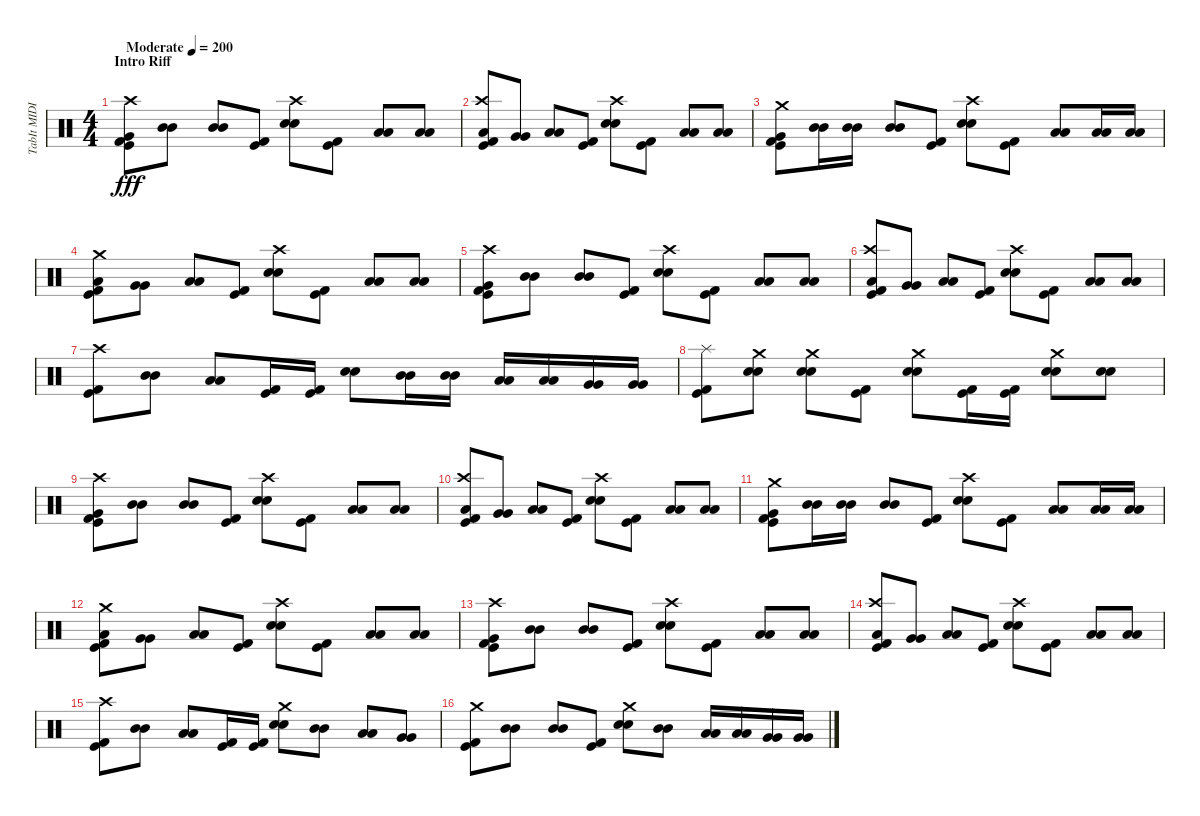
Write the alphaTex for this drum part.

\track ("TabIt MIDI - Track 4" "TabIt MIDI") {instrument percussion}
\staff {score}
\articulation defaults
\ts (4 4)
\section ("" "Intro Riff")
\tempo (200 "Moderate")
\clef neutral
\ks c
("Kick (hit)" "Kick (hit) 2" "Very Low Tom (hit)" "Crash high (hit)").8{dy fff} ("Mid Tom (hit)" "Mid Tom (hit)").8 ("Mid Tom (hit)" "Mid Tom (hit)").8 ("Kick (hit)" "Kick (hit) 2").8 ("Electric Snare (hit)" "Electric Snare (hit)" "Crash high (hit)").8 ("Kick (hit)" "Kick (hit) 2").8 ("Low Tom (hit)" "Low Tom (hit)").8 ("Low Tom (hit)" "Low Tom (hit)").8 |
("Kick (hit)" "Kick (hit) 2" "Low Floor Tom (hit)" "Crash high (hit)").8 ("Very Low Tom (hit)" "Very Low Tom (hit)").8 ("Low Floor Tom (hit)" "Low Floor Tom (hit)").8 ("Kick (hit)" "Kick (hit) 2").8 ("Electric Snare (hit)" "Electric Snare (hit)" "Crash high (hit)").8 ("Kick (hit)" "Kick (hit) 2").8 ("Low Tom (hit)" "Low Tom (hit)").8 ("Low Tom (hit)" "Low Tom (hit)").8 |
("Kick (hit)" "Kick (hit) 2" "Very Low Tom (hit)" "Crash medium (hit)").8 ("Mid Tom (hit)" "Mid Tom (hit)").16 ("Mid Tom (hit)" "Mid Tom (hit)").16 ("Mid Tom (hit)" "Mid Tom (hit)").8 ("Kick (hit)" "Kick (hit) 2").8 ("Electric Snare (hit)" "Electric Snare (hit)" "Crash high (hit)").8 ("Kick (hit)" "Kick (hit) 2").8 ("Low Tom (hit)" "Low Tom (hit)").8 ("Low Tom (hit)" "Low Tom (hit)").16 ("Low Tom (hit)" "Low Tom (hit)").16 |
("Kick (hit)" "Kick (hit) 2" "Low Floor Tom (hit)" "Crash medium (hit)").8 ("Very Low Tom (hit)" "Very Low Tom (hit)").8 ("Low Floor Tom (hit)" "Low Floor Tom (hit)").8 ("Kick (hit)" "Kick (hit) 2").8 ("Electric Snare (hit)" "Electric Snare (hit)" "Crash high (hit)").8 ("Kick (hit)" "Kick (hit) 2").8 ("Low Tom (hit)" "Low Tom (hit)").8 ("Low Tom (hit)" "Low Tom (hit)").8 |
("Kick (hit)" "Kick (hit) 2" "Very Low Tom (hit)" "Crash high (hit)").8 ("Mid Tom (hit)" "Mid Tom (hit)").8 ("Mid Tom (hit)" "Mid Tom (hit)").8 ("Kick (hit)" "Kick (hit) 2").8 ("Electric Snare (hit)" "Electric Snare (hit)" "Crash high (hit)").8 ("Kick (hit)" "Kick (hit) 2").8 ("Low Tom (hit)" "Low Tom (hit)").8 ("Low Tom (hit)" "Low Tom (hit)").8 |
("Kick (hit)" "Kick (hit) 2" "Low Floor Tom (hit)" "Crash high (hit)").8 ("Very Low Tom (hit)" "Very Low Tom (hit)").8 ("Low Floor Tom (hit)" "Low Floor Tom (hit)").8 ("Kick (hit)" "Kick (hit) 2").8 ("Electric Snare (hit)" "Electric Snare (hit)" "Crash high (hit)").8 ("Kick (hit)" "Kick (hit) 2").8 ("Low Tom (hit)" "Low Tom (hit)").8 ("Low Tom (hit)" "Low Tom (hit)").8 |
("Kick (hit)" "Kick (hit) 2" "Crash high (hit)").8 ("Mid Tom (hit)" "Mid Tom (hit)").8 ("Low Tom (hit)" "Low Tom (hit)").8 ("Kick (hit)" "Kick (hit) 2").16 ("Kick (hit)" "Kick (hit) 2").16 ("Electric Snare (hit)" "Electric Snare (hit)").8 ("Mid Tom (hit)" "Mid Tom (hit)").16 ("Mid Tom (hit)" "Mid Tom (hit)").16 ("Low Tom (hit)" "Low Tom (hit)").16 ("Low Tom (hit)" "Low Tom (hit)").16 ("Very Low Tom (hit)" "Very Low Tom (hit)").16 ("Very Low Tom (hit)" "Very Low Tom (hit)").16 |
("Kick (hit)" "Kick (hit) 2" "Splash (hit)").8 ("Electric Snare (hit)" "Electric Snare (hit)" "Crash medium (hit)").8 ("Electric Snare (hit)" "Electric Snare (hit)" "Crash medium (hit)").8 ("Kick (hit)" "Kick (hit) 2").8 ("Electric Snare (hit)" "Electric Snare (hit)" "Crash medium (hit)").8 ("Kick (hit)" "Kick (hit) 2").16 ("Kick (hit)" "Kick (hit) 2").16 ("Electric Snare (hit)" "Electric Snare (hit)" "Crash medium (hit)").8 ("Electric Snare (hit)" "Electric Snare (hit)").8 |
("Kick (hit)" "Kick (hit) 2" "Very Low Tom (hit)" "Crash high (hit)").8 ("Mid Tom (hit)" "Mid Tom (hit)").8 ("Mid Tom (hit)" "Mid Tom (hit)").8 ("Kick (hit)" "Kick (hit) 2").8 ("Electric Snare (hit)" "Electric Snare (hit)" "Crash high (hit)").8 ("Kick (hit)" "Kick (hit) 2").8 ("Low Tom (hit)" "Low Tom (hit)").8 ("Low Tom (hit)" "Low Tom (hit)").8 |
("Kick (hit)" "Kick (hit) 2" "Low Floor Tom (hit)" "Crash high (hit)").8 ("Very Low Tom (hit)" "Very Low Tom (hit)").8 ("Low Floor Tom (hit)" "Low Floor Tom (hit)").8 ("Kick (hit)" "Kick (hit) 2").8 ("Electric Snare (hit)" "Electric Snare (hit)" "Crash high (hit)").8 ("Kick (hit)" "Kick (hit) 2").8 ("Low Tom (hit)" "Low Tom (hit)").8 ("Low Tom (hit)" "Low Tom (hit)").8 |
("Kick (hit)" "Kick (hit) 2" "Very Low Tom (hit)" "Crash medium (hit)").8 ("Mid Tom (hit)" "Mid Tom (hit)").16 ("Mid Tom (hit)" "Mid Tom (hit)").16 ("Mid Tom (hit)" "Mid Tom (hit)").8 ("Kick (hit)" "Kick (hit) 2").8 ("Electric Snare (hit)" "Electric Snare (hit)" "Crash high (hit)").8 ("Kick (hit)" "Kick (hit) 2").8 ("Low Tom (hit)" "Low Tom (hit)").8 ("Low Tom (hit)" "Low Tom (hit)").16 ("Low Tom (hit)" "Low Tom (hit)").16 |
("Kick (hit)" "Kick (hit) 2" "Low Floor Tom (hit)" "Crash medium (hit)").8 ("Very Low Tom (hit)" "Very Low Tom (hit)").8 ("Low Floor Tom (hit)" "Low Floor Tom (hit)").8 ("Kick (hit)" "Kick (hit) 2").8 ("Electric Snare (hit)" "Electric Snare (hit)" "Crash high (hit)").8 ("Kick (hit)" "Kick (hit) 2").8 ("Low Tom (hit)" "Low Tom (hit)").8 ("Low Tom (hit)" "Low Tom (hit)").8 |
("Kick (hit)" "Kick (hit) 2" "Very Low Tom (hit)" "Crash high (hit)").8 ("Mid Tom (hit)" "Mid Tom (hit)").8 ("Mid Tom (hit)" "Mid Tom (hit)").8 ("Kick (hit)" "Kick (hit) 2").8 ("Electric Snare (hit)" "Electric Snare (hit)" "Crash high (hit)").8 ("Kick (hit)" "Kick (hit) 2").8 ("Low Tom (hit)" "Low Tom (hit)").8 ("Low Tom (hit)" "Low Tom (hit)").8 |
("Kick (hit)" "Kick (hit) 2" "Low Floor Tom (hit)" "Crash high (hit)").8 ("Very Low Tom (hit)" "Very Low Tom (hit)").8 ("Low Floor Tom (hit)" "Low Floor Tom (hit)").8 ("Kick (hit)" "Kick (hit) 2").8 ("Electric Snare (hit)" "Electric Snare (hit)" "Crash high (hit)").8 ("Kick (hit)" "Kick (hit) 2").8 ("Low Tom (hit)" "Low Tom (hit)").8 ("Low Tom (hit)" "Low Tom (hit)").8 |
("Kick (hit)" "Kick (hit) 2" "Crash high (hit)").8 ("Mid Tom (hit)" "Mid Tom (hit)").8 ("Low Tom (hit)" "Low Tom (hit)").8 ("Kick (hit)" "Kick (hit) 2").16 ("Kick (hit)" "Kick (hit) 2").16 ("Electric Snare (hit)" "Electric Snare (hit)" "Crash medium (hit)").8 ("Mid Tom (hit)" "Mid Tom (hit)").8 ("Low Tom (hit)" "Low Tom (hit)").8 ("Very Low Tom (hit)" "Very Low Tom (hit)").8 |
("Kick (hit)" "Kick (hit) 2" "Crash medium (hit)").8 ("Mid Tom (hit)" "Mid Tom (hit)").8 ("Mid Tom (hit)" "Mid Tom (hit)").8 ("Kick (hit)" "Kick (hit) 2").8 ("Electric Snare (hit)" "Electric Snare (hit)" "Crash medium (hit)").8 ("Mid Tom (hit)" "Mid Tom (hit)").8 ("Low Tom (hit)" "Low Tom (hit)").16 ("Low Tom (hit)" "Low Tom (hit)").16 ("Very Low Tom (hit)" "Very Low Tom (hit)").16 ("Very Low Tom (hit)" "Very Low Tom (hit)").16
